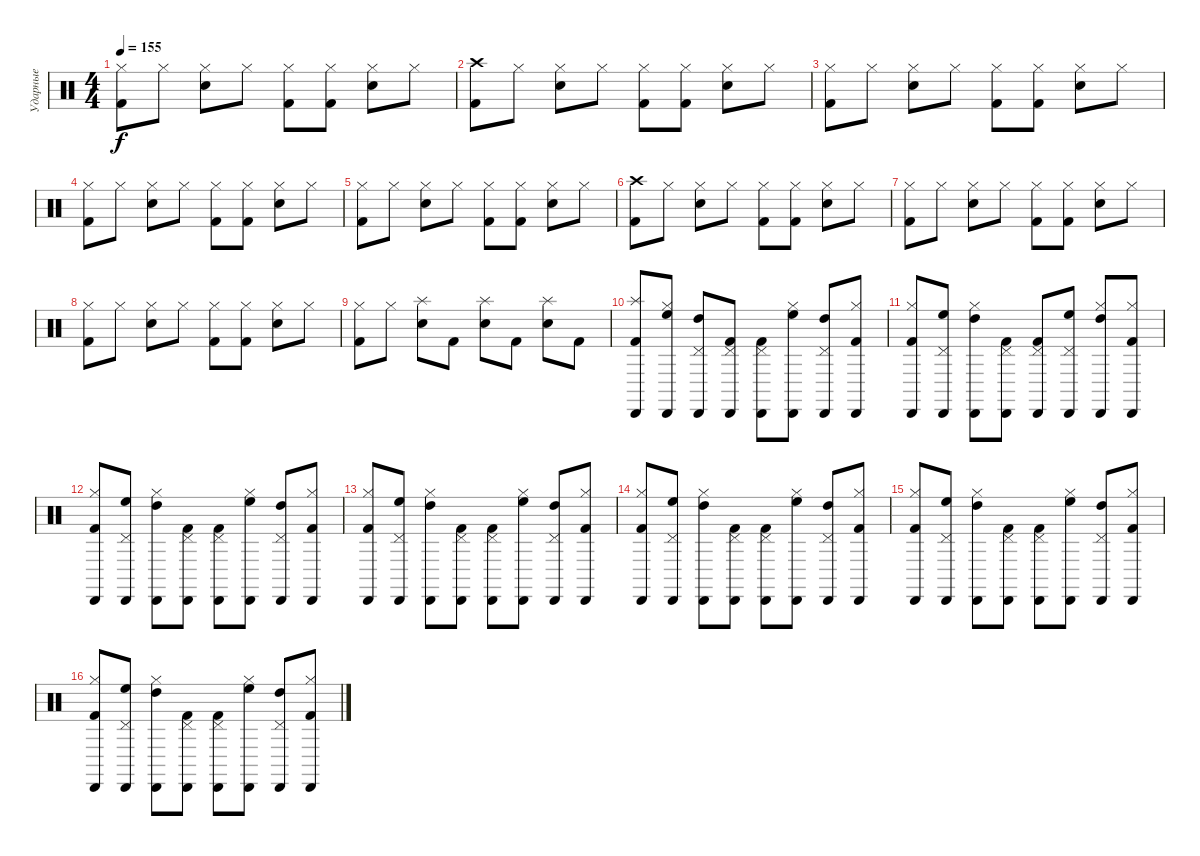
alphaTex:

\track ("Ударные" "Ударные") {instrument percussion}
\staff {score}
\articulation defaults
\ts (4 4)
\tempo 155
\clef neutral
\ks c
("Hi-Hat (closed)" "Kick (hit) 2").8{dy f} "Hi-Hat (closed)".8 ("Hi-Hat (closed)" "Electric Snare (hit)").8 "Hi-Hat (closed)".8 ("Hi-Hat (closed)" "Kick (hit) 2").8 ("Hi-Hat (closed)" "Kick (hit) 2").8 ("Hi-Hat (closed)" "Electric Snare (hit)").8 "Hi-Hat (closed)".8 |
("Crash high (hit)" "Kick (hit) 2").8 "Hi-Hat (closed)".8 ("Hi-Hat (closed)" "Electric Snare (hit)").8 "Hi-Hat (closed)".8 ("Hi-Hat (closed)" "Kick (hit) 2").8 ("Hi-Hat (closed)" "Kick (hit) 2").8 ("Hi-Hat (closed)" "Electric Snare (hit)").8 "Hi-Hat (closed)".8 |
("Hi-Hat (closed)" "Kick (hit) 2").8 "Hi-Hat (closed)".8 ("Hi-Hat (closed)" "Electric Snare (hit)").8 "Hi-Hat (closed)".8 ("Hi-Hat (closed)" "Kick (hit) 2").8 ("Hi-Hat (closed)" "Kick (hit) 2").8 ("Hi-Hat (closed)" "Electric Snare (hit)").8 "Hi-Hat (closed)".8 |
("Hi-Hat (closed)" "Kick (hit) 2").8 "Hi-Hat (closed)".8 ("Hi-Hat (closed)" "Electric Snare (hit)").8 "Hi-Hat (closed)".8 ("Hi-Hat (closed)" "Kick (hit) 2").8 ("Hi-Hat (closed)" "Kick (hit) 2").8 ("Hi-Hat (closed)" "Electric Snare (hit)").8 "Hi-Hat (closed)".8 |
("Hi-Hat (closed)" "Kick (hit) 2").8 "Hi-Hat (closed)".8 ("Hi-Hat (closed)" "Electric Snare (hit)").8 "Hi-Hat (closed)".8 ("Hi-Hat (closed)" "Kick (hit) 2").8 ("Hi-Hat (closed)" "Kick (hit) 2").8 ("Hi-Hat (closed)" "Electric Snare (hit)").8 "Hi-Hat (closed)".8 |
("Crash high (hit)" "Kick (hit) 2").8 "Hi-Hat (closed)".8 ("Hi-Hat (closed)" "Electric Snare (hit)").8 "Hi-Hat (closed)".8 ("Hi-Hat (closed)" "Kick (hit) 2").8 ("Hi-Hat (closed)" "Kick (hit) 2").8 ("Hi-Hat (closed)" "Electric Snare (hit)").8 "Hi-Hat (closed)".8 |
("Hi-Hat (closed)" "Kick (hit) 2").8 "Hi-Hat (closed)".8 ("Hi-Hat (closed)" "Electric Snare (hit)").8 "Hi-Hat (closed)".8 ("Hi-Hat (closed)" "Kick (hit) 2").8 ("Hi-Hat (closed)" "Kick (hit) 2").8 ("Hi-Hat (closed)" "Electric Snare (hit)").8 "Hi-Hat (closed)".8 |
("Hi-Hat (closed)" "Kick (hit) 2").8 "Hi-Hat (closed)".8 ("Hi-Hat (closed)" "Electric Snare (hit)").8 "Hi-Hat (closed)".8 ("Hi-Hat (closed)" "Kick (hit) 2").8 ("Hi-Hat (closed)" "Kick (hit) 2").8 ("Hi-Hat (closed)" "Electric Snare (hit)").8 "Hi-Hat (closed)".8 |
("Hi-Hat (closed)" "Kick (hit) 2").8 "Hi-Hat (closed)".8 ("Splash (hit)" "Electric Snare (hit)").8 "Kick (hit) 2".8 ("Splash (hit)" "Electric Snare (hit)").8 "Kick (hit) 2".8 ("Splash (hit)" "Electric Snare (hit)").8 "Kick (hit) 2".8 |
("Cabasa (hit)" "Splash (hit)" "Kick (hit) 2").8{volume 10} ("Cabasa (hit)" "Hi-Hat (closed)" "High Floor Tom (hit)").8 ("Cabasa (hit)" "Pedal Hi-Hat (hit)" "High Tom (hit)").8 ("Cabasa (hit)" "Pedal Hi-Hat (hit)" "Kick (hit) 2").8 ("Cabasa (hit)" "Pedal Hi-Hat (hit)" "Kick (hit) 2").8 ("Cabasa (hit)" "Hi-Hat (closed)" "High Floor Tom (hit)").8 ("Cabasa (hit)" "Pedal Hi-Hat (hit)" "High Tom (hit)").8 ("Cabasa (hit)" "Hi-Hat (closed)" "Kick (hit) 2").8 |
("Cabasa (hit)" "Hi-Hat (closed)" "Kick (hit) 2").8 ("Cabasa (hit)" "Pedal Hi-Hat (hit)" "High Floor Tom (hit)").8 ("Cabasa (hit)" "Hi-Hat (closed)" "High Tom (hit)").8 ("Cabasa (hit)" "Pedal Hi-Hat (hit)" "Kick (hit) 2").8 ("Cabasa (hit)" "Pedal Hi-Hat (hit)" "Kick (hit) 2").8 ("Cabasa (hit)" "Pedal Hi-Hat (hit)" "High Floor Tom (hit)").8 ("Cabasa (hit)" "Hi-Hat (closed)" "High Tom (hit)").8 ("Cabasa (hit)" "Hi-Hat (closed)" "Kick (hit) 2").8 |
("Cabasa (hit)" "Hi-Hat (closed)" "Kick (hit) 2").8 ("Cabasa (hit)" "Pedal Hi-Hat (hit)" "High Floor Tom (hit)").8 ("Cabasa (hit)" "Hi-Hat (closed)" "High Tom (hit)").8 ("Cabasa (hit)" "Pedal Hi-Hat (hit)" "Kick (hit) 2").8 ("Cabasa (hit)" "Pedal Hi-Hat (hit)" "Kick (hit) 2").8 ("Cabasa (hit)" "Hi-Hat (closed)" "High Floor Tom (hit)").8 ("Cabasa (hit)" "Pedal Hi-Hat (hit)" "High Tom (hit)").8 ("Cabasa (hit)" "Hi-Hat (closed)" "Kick (hit) 2").8 |
("Cabasa (hit)" "Hi-Hat (closed)" "Kick (hit) 2").8 ("Cabasa (hit)" "Pedal Hi-Hat (hit)" "High Floor Tom (hit)").8 ("Cabasa (hit)" "Hi-Hat (closed)" "High Tom (hit)").8 ("Cabasa (hit)" "Pedal Hi-Hat (hit)" "Kick (hit) 2").8 ("Cabasa (hit)" "Pedal Hi-Hat (hit)" "Kick (hit) 2").8 ("Cabasa (hit)" "Hi-Hat (closed)" "High Floor Tom (hit)").8 ("Cabasa (hit)" "Pedal Hi-Hat (hit)" "High Tom (hit)").8 ("Cabasa (hit)" "Hi-Hat (closed)" "Kick (hit) 2").8 |
("Cabasa (hit)" "Hi-Hat (closed)" "Kick (hit) 2").8 ("Cabasa (hit)" "Pedal Hi-Hat (hit)" "High Floor Tom (hit)").8 ("Cabasa (hit)" "Hi-Hat (closed)" "High Tom (hit)").8 ("Cabasa (hit)" "Pedal Hi-Hat (hit)" "Kick (hit) 2").8 ("Cabasa (hit)" "Pedal Hi-Hat (hit)" "Kick (hit) 2").8 ("Cabasa (hit)" "Hi-Hat (closed)" "High Floor Tom (hit)").8 ("Cabasa (hit)" "Pedal Hi-Hat (hit)" "High Tom (hit)").8 ("Cabasa (hit)" "Hi-Hat (closed)" "Kick (hit) 2").8 |
("Cabasa (hit)" "Hi-Hat (closed)" "Kick (hit) 2").8 ("Cabasa (hit)" "Pedal Hi-Hat (hit)" "High Floor Tom (hit)").8 ("Cabasa (hit)" "Hi-Hat (closed)" "High Tom (hit)").8 ("Cabasa (hit)" "Pedal Hi-Hat (hit)" "Kick (hit) 2").8 ("Cabasa (hit)" "Pedal Hi-Hat (hit)" "Kick (hit) 2").8 ("Cabasa (hit)" "Hi-Hat (closed)" "High Floor Tom (hit)").8 ("Cabasa (hit)" "Pedal Hi-Hat (hit)" "High Tom (hit)").8 ("Cabasa (hit)" "Hi-Hat (closed)" "Kick (hit) 2").8 |
("Cabasa (hit)" "Hi-Hat (closed)" "Kick (hit) 2").8 ("Cabasa (hit)" "Pedal Hi-Hat (hit)" "High Floor Tom (hit)").8 ("Cabasa (hit)" "Hi-Hat (closed)" "High Tom (hit)").8 ("Cabasa (hit)" "Pedal Hi-Hat (hit)" "Kick (hit) 2").8 ("Cabasa (hit)" "Pedal Hi-Hat (hit)" "Kick (hit) 2").8 ("Cabasa (hit)" "Hi-Hat (closed)" "High Floor Tom (hit)").8 ("Cabasa (hit)" "Pedal Hi-Hat (hit)" "High Tom (hit)").8 ("Cabasa (hit)" "Hi-Hat (closed)" "Kick (hit) 2").8
